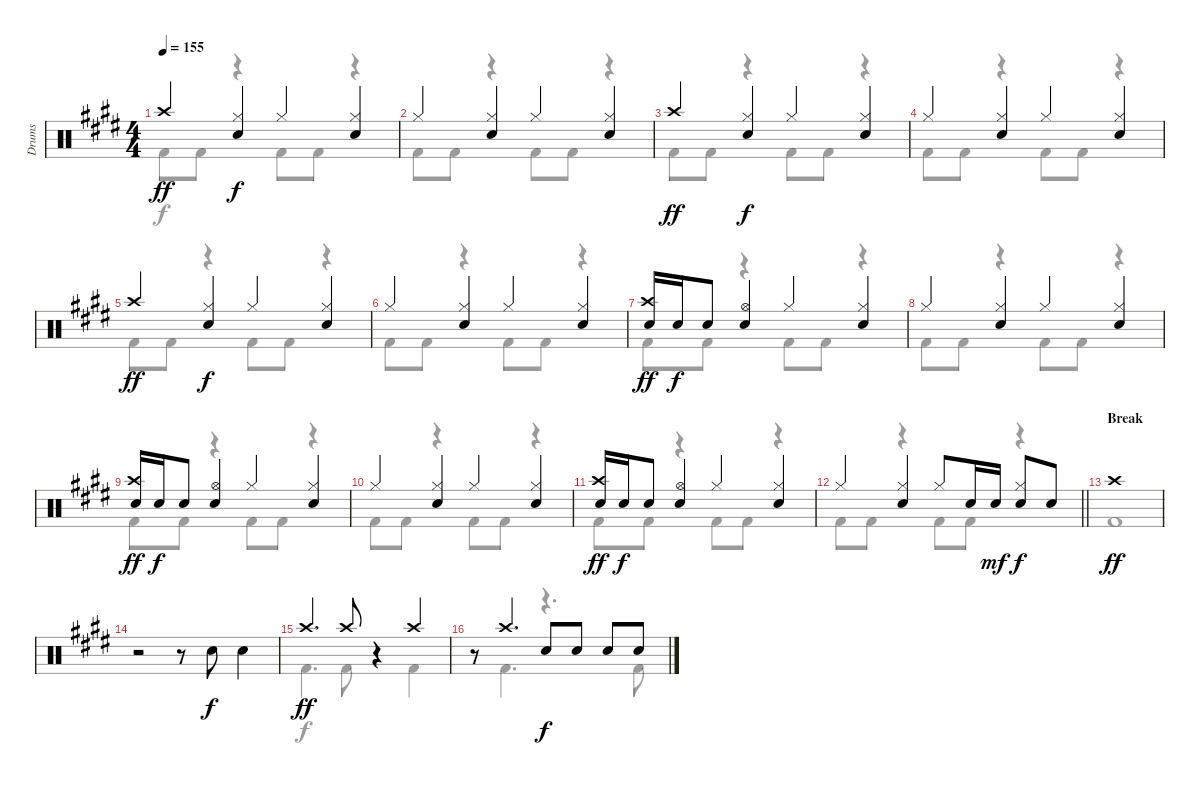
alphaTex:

\track ("Drums" "Drums") {instrument percussion}
\staff {score}
\articulation defaults
\voice
\ts (4 4)
\tempo 155
\clef neutral
\ks e "Crash high (hit)".4{dy ff}
("Hi-Hat (closed)" "Electric Snare (hit)").4{dy f} "Hi-Hat (closed)".4 ("Hi-Hat (closed)" "Electric Snare (hit)").4 |
"Hi-Hat (closed)".4 ("Hi-Hat (closed)" "Electric Snare (hit)").4 "Hi-Hat (closed)".4 ("Hi-Hat (closed)" "Electric Snare (hit)").4 |
"Crash high (hit)".4{dy ff} ("Hi-Hat (closed)" "Electric Snare (hit)").4{dy f} "Hi-Hat (closed)".4 ("Hi-Hat (closed)" "Electric Snare (hit)").4 |
"Hi-Hat (closed)".4 ("Hi-Hat (closed)" "Electric Snare (hit)").4 "Hi-Hat (closed)".4 ("Hi-Hat (closed)" "Electric Snare (hit)").4 |
"Crash high (hit)".4{dy ff} ("Hi-Hat (closed)" "Electric Snare (hit)").4{dy f} "Hi-Hat (closed)".4 ("Hi-Hat (closed)" "Electric Snare (hit)").4 |
"Hi-Hat (closed)".4 ("Hi-Hat (closed)" "Electric Snare (hit)").4 "Hi-Hat (closed)".4 ("Hi-Hat (closed)" "Electric Snare (hit)").4 |
("Crash high (hit)" "Electric Snare (hit)").16{dy ff} "Electric Snare (hit)".16{dy f} "Electric Snare (hit)".8 ("Hi-Hat (open)" "Electric Snare (hit)").4 "Hi-Hat (closed)".4 ("Hi-Hat (closed)" "Electric Snare (hit)").4 |
"Hi-Hat (closed)".4 ("Hi-Hat (closed)" "Electric Snare (hit)").4 "Hi-Hat (closed)".4 ("Hi-Hat (closed)" "Electric Snare (hit)").4 |
("Crash high (hit)" "Electric Snare (hit)").16{dy ff} "Electric Snare (hit)".16{dy f} "Electric Snare (hit)".8 ("Hi-Hat (open)" "Electric Snare (hit)").4 "Hi-Hat (closed)".4 ("Hi-Hat (closed)" "Electric Snare (hit)").4 |
"Hi-Hat (closed)".4 ("Hi-Hat (closed)" "Electric Snare (hit)").4 "Hi-Hat (closed)".4 ("Hi-Hat (closed)" "Electric Snare (hit)").4 |
("Crash high (hit)" "Electric Snare (hit)").16{dy ff} "Electric Snare (hit)".16{dy f} "Electric Snare (hit)".8 ("Hi-Hat (open)" "Electric Snare (hit)").4 "Hi-Hat (closed)".4 ("Hi-Hat (closed)" "Electric Snare (hit)").4 |
\barLineRight lightlight "Hi-Hat (closed)".4
("Hi-Hat (closed)" "Electric Snare (hit)").4 "Hi-Hat (closed)".8 "Electric Snare (hit)".16 "Electric Snare (hit)".16{dy mf} ("Hi-Hat (closed)" "Electric Snare (hit)").8{dy f} "Electric Snare (hit)".8 |
\section ("" "Break")
"Crash high (hit)".1{dy ff} |
r.2 r.8 "Electric Snare (hit)".8{dy f} "Electric Snare (hit)".4 |
"Crash high (hit)".4{d dy ff} "Crash high (hit)".8 r.4 "Crash high (hit)".4 |
r.8 "Crash high (hit)".4{d} "Electric Snare (hit)".8{dy f} "Electric Snare (hit)".8 "Electric Snare (hit)".8 "Electric Snare (hit)".8
\voice
\clef neutral
\ottava regular
\simile none
\ks e "Kick (hit) 2".8{dy f} "Kick (hit) 2".8
r.4 "Kick (hit) 2".8 "Kick (hit) 2".8 r.4 |
"Kick (hit) 2".8 "Kick (hit) 2".8 r.4 "Kick (hit) 2".8 "Kick (hit) 2".8 r.4 |
"Kick (hit) 2".8 "Kick (hit) 2".8 r.4 "Kick (hit) 2".8 "Kick (hit) 2".8 r.4 |
"Kick (hit) 2".8 "Kick (hit) 2".8 r.4 "Kick (hit) 2".8 "Kick (hit) 2".8 r.4 |
"Kick (hit) 2".8 "Kick (hit) 2".8 r.4 "Kick (hit) 2".8 "Kick (hit) 2".8 r.4 |
"Kick (hit) 2".8 "Kick (hit) 2".8 r.4 "Kick (hit) 2".8 "Kick (hit) 2".8 r.4 |
"Kick (hit) 2".8 "Kick (hit) 2".8 r.4 "Kick (hit) 2".8 "Kick (hit) 2".8 r.4 |
"Kick (hit) 2".8 "Kick (hit) 2".8 r.4 "Kick (hit) 2".8 "Kick (hit) 2".8 r.4 |
"Kick (hit) 2".8 "Kick (hit) 2".8 r.4 "Kick (hit) 2".8 "Kick (hit) 2".8 r.4 |
"Kick (hit) 2".8 "Kick (hit) 2".8 r.4 "Kick (hit) 2".8 "Kick (hit) 2".8 r.4 |
"Kick (hit) 2".8 "Kick (hit) 2".8 r.4 "Kick (hit) 2".8 "Kick (hit) 2".8 r.4 |
\barLineRight lightlight "Kick (hit) 2".8 "Kick (hit) 2".8
r.4 "Kick (hit) 2".8 "Kick (hit) 2".8 r.4 |
"Kick (hit) 2".1{dy ff} |
|
"Kick (hit) 2".4{d dy f} "Kick (hit) 2".8 r.4 "Kick (hit) 2".4 |
r.8 "Kick (hit) 2".4{d} r.4{d} "Kick (hit) 2".8
